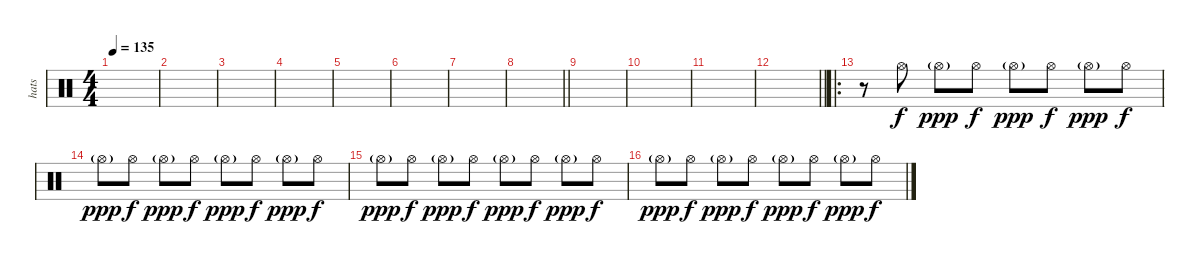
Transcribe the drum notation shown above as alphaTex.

\track ("hats" "hats") {instrument percussion}
\staff {score}
\articulation defaults
\ts (4 4)
\tempo 135
\clef neutral
\ks c
|
|
|
|
|
|
|
\barLineRight lightlight
|
|
|
|
\barLineRight lightlight
|
\ro
r.8 "Hi-Hat (open)".8 "Hi-Hat (open)"{g}.8{dy ppp} "Hi-Hat (open)".8{dy f} "Hi-Hat (open)"{g}.8{dy ppp} "Hi-Hat (open)".8{dy f} "Hi-Hat (open)"{g}.8{dy ppp} "Hi-Hat (open)".8{dy f} |
"Hi-Hat (open)"{g}.8{dy ppp} "Hi-Hat (open)".8{dy f} "Hi-Hat (open)"{g}.8{dy ppp} "Hi-Hat (open)".8{dy f} "Hi-Hat (open)"{g}.8{dy ppp} "Hi-Hat (open)".8{dy f} "Hi-Hat (open)"{g}.8{dy ppp} "Hi-Hat (open)".8{dy f} |
"Hi-Hat (open)"{g}.8{dy ppp} "Hi-Hat (open)".8{dy f} "Hi-Hat (open)"{g}.8{dy ppp} "Hi-Hat (open)".8{dy f} "Hi-Hat (open)"{g}.8{dy ppp} "Hi-Hat (open)".8{dy f} "Hi-Hat (open)"{g}.8{dy ppp} "Hi-Hat (open)".8{dy f} |
"Hi-Hat (open)"{g}.8{dy ppp} "Hi-Hat (open)".8{dy f} "Hi-Hat (open)"{g}.8{dy ppp} "Hi-Hat (open)".8{dy f} "Hi-Hat (open)"{g}.8{dy ppp} "Hi-Hat (open)".8{dy f} "Hi-Hat (open)"{g}.8{dy ppp} "Hi-Hat (open)".8{dy f}
